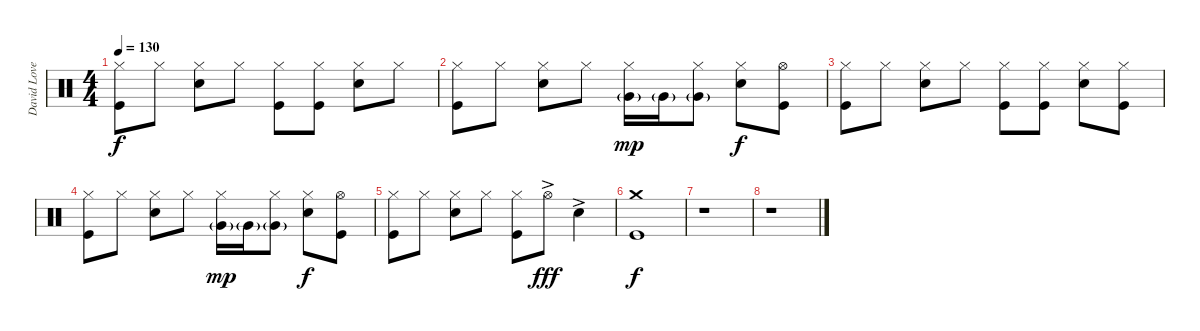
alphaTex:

\track ("David Lovering" "David Love") {instrument percussion}
\staff {score}
\articulation defaults
\ts (4 4)
\tempo 130
\clef neutral
\ks c
("Hi-Hat (closed)" "Kick (hit)").8{dy f} "Hi-Hat (closed)".8 ("Hi-Hat (closed)" "Snare (hit) 2").8 "Hi-Hat (closed)".8 ("Hi-Hat (closed)" "Kick (hit)").8 ("Hi-Hat (closed)" "Kick (hit)").8 ("Hi-Hat (closed)" "Snare (hit) 2").8 "Hi-Hat (closed)".8 |
("Hi-Hat (closed)" "Kick (hit)").8 "Hi-Hat (closed)".8 ("Hi-Hat (closed)" "Snare (hit) 2").8 "Hi-Hat (closed)".8 ("Hi-Hat (closed)" "Very Low Tom (hit)"{g}).16{dy mp} "Very Low Tom (hit)"{g}.16 ("Hi-Hat (closed)" "Very Low Tom (hit)"{g}).8 ("Hi-Hat (closed)" "Snare (hit) 2").8{dy f} ("Hi-Hat (open)" "Kick (hit)").8 |
("Hi-Hat (closed)" "Kick (hit)").8 "Hi-Hat (closed)".8 ("Hi-Hat (closed)" "Snare (hit) 2").8 "Hi-Hat (closed)".8 ("Hi-Hat (closed)" "Kick (hit)").8 ("Hi-Hat (closed)" "Kick (hit)").8 ("Hi-Hat (closed)" "Snare (hit) 2").8 ("Hi-Hat (closed)" "Kick (hit)").8 |
("Hi-Hat (closed)" "Kick (hit)").8 "Hi-Hat (closed)".8 ("Hi-Hat (closed)" "Snare (hit) 2").8 "Hi-Hat (closed)".8 ("Hi-Hat (closed)" "Very Low Tom (hit)"{g}).16{dy mp} "Very Low Tom (hit)"{g}.16 ("Hi-Hat (closed)" "Very Low Tom (hit)"{g}).8 ("Hi-Hat (closed)" "Snare (hit) 2").8{dy f} ("Hi-Hat (open)" "Kick (hit)").8 |
("Hi-Hat (closed)" "Kick (hit)").8 "Hi-Hat (closed)".8 ("Hi-Hat (closed)" "Snare (hit) 2").8 "Hi-Hat (closed)".8 ("Hi-Hat (closed)" "Kick (hit)").8 "Hi-Hat (open)"{ac}.8{dy fff} "Snare (hit) 2"{ac}.4 |
("Crash medium (hit)" "Kick (hit)").1{dy f} |
r.1 |
r.1
